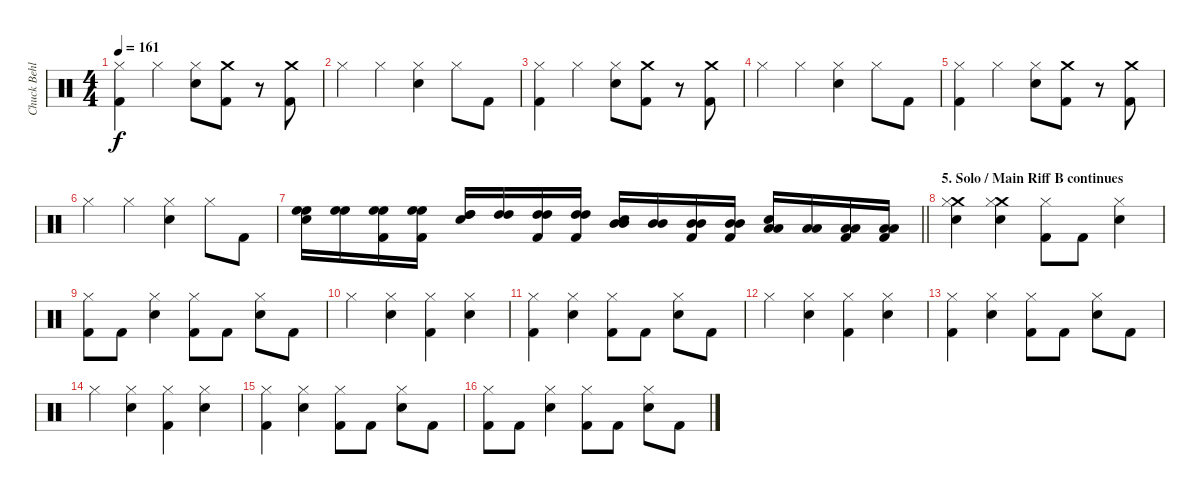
\track ("Chuck Behler" "Chuck Behl") {instrument percussion}
\staff {score}
\articulation defaults
\ts (4 4)
\tempo 161
\clef neutral
\ks c
("Hi-Hat (closed)" "Kick (hit) 2").4{dy f} "Hi-Hat (closed)".4 ("Hi-Hat (closed)" "Snare (hit) 2").8 ("Crash medium (hit)" "Kick (hit) 2").8 r.8 ("Crash medium (hit)" "Kick (hit) 2").8 |
"Hi-Hat (closed)".4 "Hi-Hat (closed)".4 ("Hi-Hat (closed)" "Snare (hit) 2").4 "Hi-Hat (closed)".8 "Kick (hit) 2".8 |
("Hi-Hat (closed)" "Kick (hit) 2").4 "Hi-Hat (closed)".4 ("Hi-Hat (closed)" "Snare (hit) 2").8 ("Crash medium (hit)" "Kick (hit) 2").8 r.8 ("Crash medium (hit)" "Kick (hit) 2").8 |
"Hi-Hat (closed)".4 "Hi-Hat (closed)".4 ("Hi-Hat (closed)" "Snare (hit) 2").4 "Hi-Hat (closed)".8 "Kick (hit) 2".8 |
("Hi-Hat (closed)" "Kick (hit) 2").4 "Hi-Hat (closed)".4 ("Hi-Hat (closed)" "Snare (hit) 2").8 ("Crash medium (hit)" "Kick (hit) 2").8 r.8 ("Crash medium (hit)" "Kick (hit) 2").8 |
"Hi-Hat (closed)".4 "Hi-Hat (closed)".4 ("Hi-Hat (closed)" "Snare (hit) 2").4 "Hi-Hat (closed)".8 "Kick (hit) 2".8 |
\barLineRight lightlight
("High Floor Tom (hit)" "High Floor Tom (hit)" "Snare (hit) 2").16 ("High Floor Tom (hit)" "High Floor Tom (hit)").16 ("High Floor Tom (hit)" "High Floor Tom (hit)" "Kick (hit) 2").16 ("High Floor Tom (hit)" "High Floor Tom (hit)" "Kick (hit) 2").16 ("High Tom (hit)" "High Tom (hit)" "Snare (hit) 2").16 ("High Tom (hit)" "High Tom (hit)").16 ("High Tom (hit)" "High Tom (hit)" "Kick (hit) 2").16 ("High Tom (hit)" "High Tom (hit)" "Kick (hit) 2").16 ("Mid Tom (hit)" "Mid Tom (hit)" "Snare (hit) 2").16 ("Mid Tom (hit)" "Mid Tom (hit)").16 ("Mid Tom (hit)" "Mid Tom (hit)" "Kick (hit) 2").16 ("Mid Tom (hit)" "Mid Tom (hit)" "Kick (hit) 2").16 ("Low Tom (hit)" "Low Tom (hit)" "Snare (hit) 2").16 ("Low Tom (hit)" "Low Tom (hit)").16 ("Low Tom (hit)" "Low Tom (hit)" "Kick (hit) 2").16 ("Low Tom (hit)" "Low Tom (hit)" "Kick (hit) 2").16 |
\section ("" "5. Solo / Main Riff B continues")
("Crash medium (hit)" "Hi-Hat (closed)" "Snare (hit) 2").4 ("Crash medium (hit)" "Hi-Hat (closed)" "Snare (hit) 2").4 ("Hi-Hat (closed)" "Kick (hit) 2").8 "Kick (hit) 2".8 ("Hi-Hat (closed)" "Snare (hit) 2").4 |
("Hi-Hat (closed)" "Kick (hit) 2").8 "Kick (hit) 2".8 ("Hi-Hat (closed)" "Snare (hit) 2").4 ("Hi-Hat (closed)" "Kick (hit) 2").8 "Kick (hit) 2".8 ("Hi-Hat (closed)" "Snare (hit) 2").8 "Kick (hit) 2".8 |
"Hi-Hat (closed)".4 ("Hi-Hat (closed)" "Snare (hit) 2").4 ("Hi-Hat (closed)" "Kick (hit) 2").4 ("Hi-Hat (closed)" "Snare (hit) 2").4 |
("Hi-Hat (closed)" "Kick (hit) 2").4 ("Hi-Hat (closed)" "Snare (hit) 2").4 ("Hi-Hat (closed)" "Kick (hit) 2").8 "Kick (hit) 2".8 ("Hi-Hat (closed)" "Snare (hit) 2").8 "Kick (hit) 2".8 |
"Hi-Hat (closed)".4 ("Hi-Hat (closed)" "Snare (hit) 2").4 ("Hi-Hat (closed)" "Kick (hit) 2").4 ("Hi-Hat (closed)" "Snare (hit) 2").4 |
("Hi-Hat (closed)" "Kick (hit) 2").4 ("Hi-Hat (closed)" "Snare (hit) 2").4 ("Hi-Hat (closed)" "Kick (hit) 2").8 "Kick (hit) 2".8 ("Hi-Hat (closed)" "Snare (hit) 2").8 "Kick (hit) 2".8 |
"Hi-Hat (closed)".4 ("Hi-Hat (closed)" "Snare (hit) 2").4 ("Hi-Hat (closed)" "Kick (hit) 2").4 ("Hi-Hat (closed)" "Snare (hit) 2").4 |
("Hi-Hat (closed)" "Kick (hit) 2").4 ("Hi-Hat (closed)" "Snare (hit) 2").4 ("Hi-Hat (closed)" "Kick (hit) 2").8 "Kick (hit) 2".8 ("Hi-Hat (closed)" "Snare (hit) 2").8 "Kick (hit) 2".8 |
("Hi-Hat (closed)" "Kick (hit) 2").8 "Kick (hit) 2".8 ("Hi-Hat (closed)" "Snare (hit) 2").4 ("Hi-Hat (closed)" "Kick (hit) 2").8 "Kick (hit) 2".8 ("Hi-Hat (closed)" "Snare (hit) 2").8 "Kick (hit) 2".8
